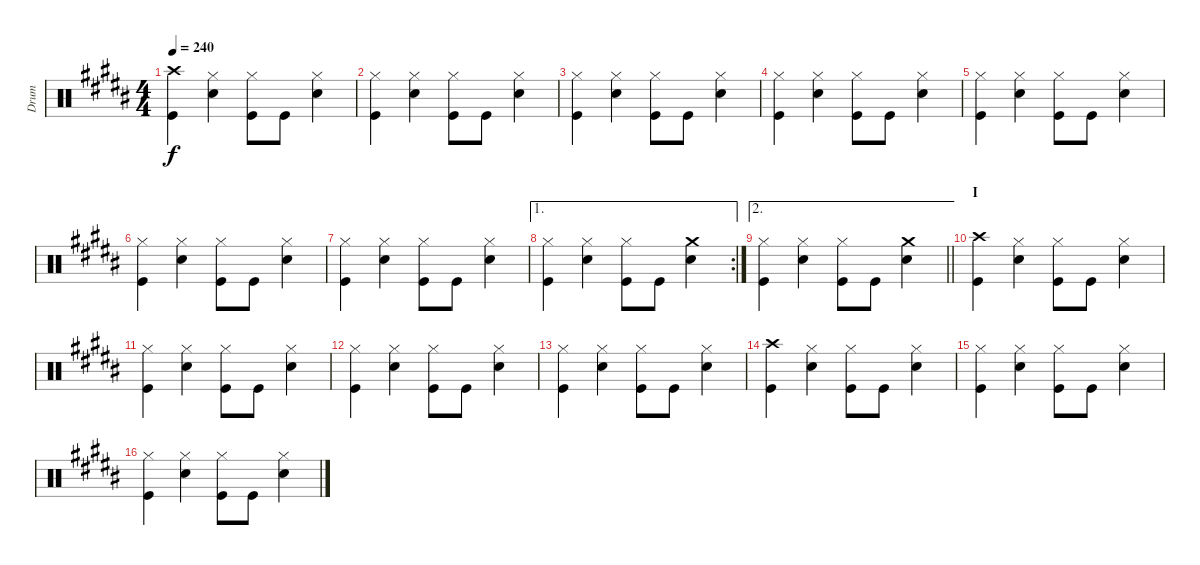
\track ("Drum" "Drum") {instrument percussion}
\staff {score}
\articulation defaults
\ts (4 4)
\tempo 240
\clef neutral
\ks b
("Kick (hit)" "Crash high (hit)").4{dy f} ("Hi-Hat (closed)" "Snare (hit) 2").4 ("Hi-Hat (closed)" "Kick (hit)").8 "Kick (hit)".8 ("Snare (hit) 2" "Hi-Hat (closed)").4 |
("Kick (hit)" "Hi-Hat (closed)").4 ("Hi-Hat (closed)" "Snare (hit) 2").4 ("Hi-Hat (closed)" "Kick (hit)").8 "Kick (hit)".8 ("Snare (hit) 2" "Hi-Hat (closed)").4 |
("Kick (hit)" "Hi-Hat (closed)").4 ("Hi-Hat (closed)" "Snare (hit) 2").4 ("Hi-Hat (closed)" "Kick (hit)").8 "Kick (hit)".8 ("Snare (hit) 2" "Hi-Hat (closed)").4 |
("Kick (hit)" "Hi-Hat (closed)").4 ("Hi-Hat (closed)" "Snare (hit) 2").4 ("Hi-Hat (closed)" "Kick (hit)").8 "Kick (hit)".8 ("Snare (hit) 2" "Hi-Hat (closed)").4 |
("Kick (hit)" "Hi-Hat (closed)").4 ("Hi-Hat (closed)" "Snare (hit) 2").4 ("Hi-Hat (closed)" "Kick (hit)").8 "Kick (hit)".8 ("Snare (hit) 2" "Hi-Hat (closed)").4 |
("Kick (hit)" "Hi-Hat (closed)").4 ("Hi-Hat (closed)" "Snare (hit) 2").4 ("Hi-Hat (closed)" "Kick (hit)").8 "Kick (hit)".8 ("Snare (hit) 2" "Hi-Hat (closed)").4 |
("Kick (hit)" "Hi-Hat (closed)").4 ("Hi-Hat (closed)" "Snare (hit) 2").4 ("Hi-Hat (closed)" "Kick (hit)").8 "Kick (hit)".8 ("Snare (hit) 2" "Hi-Hat (closed)").4 |
\ae 1
\rc 2
("Kick (hit)" "Hi-Hat (closed)").4 ("Hi-Hat (closed)" "Snare (hit) 2").4 ("Hi-Hat (closed)" "Kick (hit)").8 "Kick (hit)".8 ("Snare (hit) 2" "Crash medium (hit)").4 |
\ae 2
\barLineRight lightlight
("Kick (hit)" "Hi-Hat (closed)").4 ("Hi-Hat (closed)" "Snare (hit) 2").4 ("Hi-Hat (closed)" "Kick (hit)").8 "Kick (hit)".8 ("Snare (hit) 2" "Crash medium (hit)").4 |
\section ("" "I")
("Kick (hit)" "Crash high (hit)").4 ("Hi-Hat (closed)" "Snare (hit) 2").4 ("Hi-Hat (closed)" "Kick (hit)").8 "Kick (hit)".8 ("Snare (hit) 2" "Hi-Hat (closed)").4 |
("Kick (hit)" "Hi-Hat (closed)").4 ("Hi-Hat (closed)" "Snare (hit) 2").4 ("Hi-Hat (closed)" "Kick (hit)").8 "Kick (hit)".8 ("Snare (hit) 2" "Hi-Hat (closed)").4 |
("Kick (hit)" "Hi-Hat (closed)").4 ("Hi-Hat (closed)" "Snare (hit) 2").4 ("Hi-Hat (closed)" "Kick (hit)").8 "Kick (hit)".8 ("Snare (hit) 2" "Hi-Hat (closed)").4 |
("Kick (hit)" "Hi-Hat (closed)").4 ("Hi-Hat (closed)" "Snare (hit) 2").4 ("Hi-Hat (closed)" "Kick (hit)").8 "Kick (hit)".8 ("Snare (hit) 2" "Hi-Hat (closed)").4 |
("Kick (hit)" "Crash high (hit)").4 ("Hi-Hat (closed)" "Snare (hit) 2").4 ("Hi-Hat (closed)" "Kick (hit)").8 "Kick (hit)".8 ("Snare (hit) 2" "Hi-Hat (closed)").4 |
("Kick (hit)" "Hi-Hat (closed)").4 ("Hi-Hat (closed)" "Snare (hit) 2").4 ("Hi-Hat (closed)" "Kick (hit)").8 "Kick (hit)".8 ("Snare (hit) 2" "Hi-Hat (closed)").4 |
("Kick (hit)" "Hi-Hat (closed)").4 ("Hi-Hat (closed)" "Snare (hit) 2").4 ("Hi-Hat (closed)" "Kick (hit)").8 "Kick (hit)".8 ("Snare (hit) 2" "Hi-Hat (closed)").4
